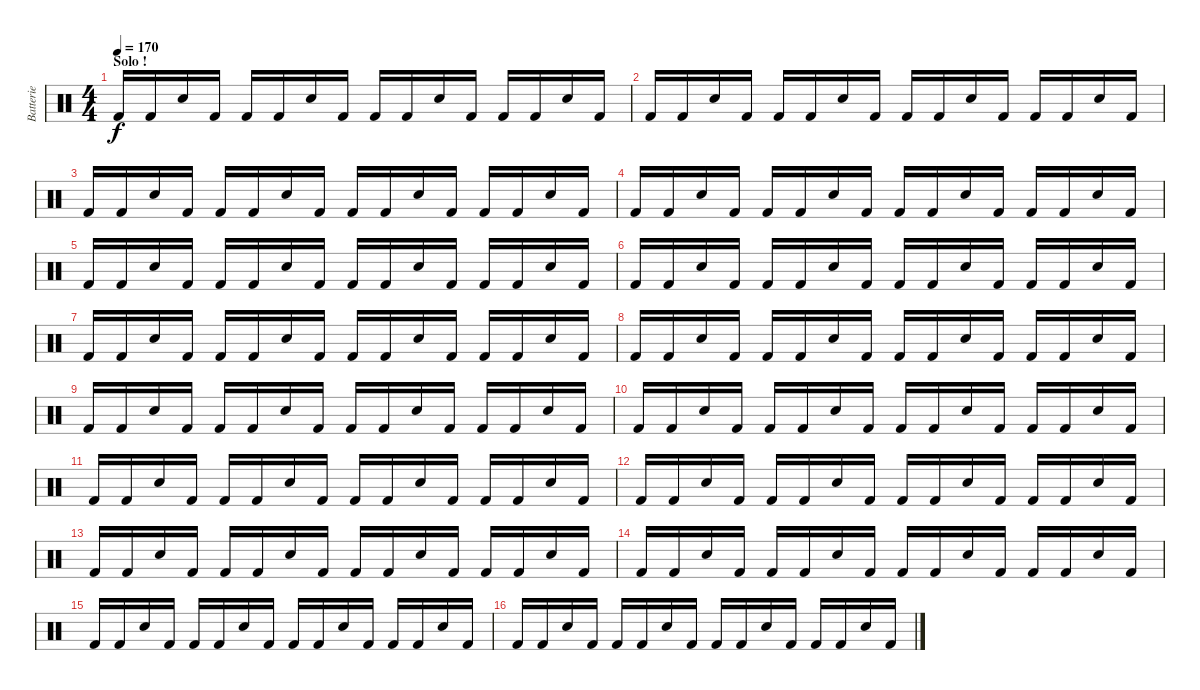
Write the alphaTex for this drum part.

\track ("Batterie" "Batterie") {instrument percussion}
\staff {score}
\articulation defaults
\ts (4 4)
\section ("" "Solo !")
\tempo 170
\clef neutral
\ks c "Kick (hit) 2".16{dy f} "Kick (hit) 2".16 "Snare (hit) 2".16 "Kick (hit) 2".16 "Kick (hit) 2".16 "Kick (hit) 2".16 "Snare (hit) 2".16 "Kick (hit) 2".16 "Kick (hit) 2".16 "Kick (hit) 2".16 "Snare (hit) 2".16 "Kick (hit) 2".16 "Kick (hit) 2".16 "Kick (hit) 2".16 "Snare (hit) 2".16 "Kick (hit) 2".16
|
"Kick (hit) 2".16 "Kick (hit) 2".16 "Snare (hit) 2".16 "Kick (hit) 2".16 "Kick (hit) 2".16 "Kick (hit) 2".16 "Snare (hit) 2".16 "Kick (hit) 2".16 "Kick (hit) 2".16 "Kick (hit) 2".16 "Snare (hit) 2".16 "Kick (hit) 2".16 "Kick (hit) 2".16 "Kick (hit) 2".16 "Snare (hit) 2".16 "Kick (hit) 2".16 |
"Kick (hit) 2".16 "Kick (hit) 2".16 "Snare (hit) 2".16 "Kick (hit) 2".16 "Kick (hit) 2".16 "Kick (hit) 2".16 "Snare (hit) 2".16 "Kick (hit) 2".16 "Kick (hit) 2".16 "Kick (hit) 2".16 "Snare (hit) 2".16 "Kick (hit) 2".16 "Kick (hit) 2".16 "Kick (hit) 2".16 "Snare (hit) 2".16 "Kick (hit) 2".16 |
"Kick (hit) 2".16 "Kick (hit) 2".16 "Snare (hit) 2".16 "Kick (hit) 2".16 "Kick (hit) 2".16 "Kick (hit) 2".16 "Snare (hit) 2".16 "Kick (hit) 2".16 "Kick (hit) 2".16 "Kick (hit) 2".16 "Snare (hit) 2".16 "Kick (hit) 2".16 "Kick (hit) 2".16 "Kick (hit) 2".16 "Snare (hit) 2".16 "Kick (hit) 2".16 |
"Kick (hit) 2".16 "Kick (hit) 2".16 "Snare (hit) 2".16 "Kick (hit) 2".16 "Kick (hit) 2".16 "Kick (hit) 2".16 "Snare (hit) 2".16 "Kick (hit) 2".16 "Kick (hit) 2".16 "Kick (hit) 2".16 "Snare (hit) 2".16 "Kick (hit) 2".16 "Kick (hit) 2".16 "Kick (hit) 2".16 "Snare (hit) 2".16 "Kick (hit) 2".16 |
"Kick (hit) 2".16 "Kick (hit) 2".16 "Snare (hit) 2".16 "Kick (hit) 2".16 "Kick (hit) 2".16 "Kick (hit) 2".16 "Snare (hit) 2".16 "Kick (hit) 2".16 "Kick (hit) 2".16 "Kick (hit) 2".16 "Snare (hit) 2".16 "Kick (hit) 2".16 "Kick (hit) 2".16 "Kick (hit) 2".16 "Snare (hit) 2".16 "Kick (hit) 2".16 |
"Kick (hit) 2".16 "Kick (hit) 2".16 "Snare (hit) 2".16 "Kick (hit) 2".16 "Kick (hit) 2".16 "Kick (hit) 2".16 "Snare (hit) 2".16 "Kick (hit) 2".16 "Kick (hit) 2".16 "Kick (hit) 2".16 "Snare (hit) 2".16 "Kick (hit) 2".16 "Kick (hit) 2".16 "Kick (hit) 2".16 "Snare (hit) 2".16 "Kick (hit) 2".16 |
"Kick (hit) 2".16 "Kick (hit) 2".16 "Snare (hit) 2".16 "Kick (hit) 2".16 "Kick (hit) 2".16 "Kick (hit) 2".16 "Snare (hit) 2".16 "Kick (hit) 2".16 "Kick (hit) 2".16 "Kick (hit) 2".16 "Snare (hit) 2".16 "Kick (hit) 2".16 "Kick (hit) 2".16 "Kick (hit) 2".16 "Snare (hit) 2".16 "Kick (hit) 2".16 |
"Kick (hit) 2".16 "Kick (hit) 2".16 "Snare (hit) 2".16 "Kick (hit) 2".16 "Kick (hit) 2".16 "Kick (hit) 2".16 "Snare (hit) 2".16 "Kick (hit) 2".16 "Kick (hit) 2".16 "Kick (hit) 2".16 "Snare (hit) 2".16 "Kick (hit) 2".16 "Kick (hit) 2".16 "Kick (hit) 2".16 "Snare (hit) 2".16 "Kick (hit) 2".16 |
"Kick (hit) 2".16 "Kick (hit) 2".16 "Snare (hit) 2".16 "Kick (hit) 2".16 "Kick (hit) 2".16 "Kick (hit) 2".16 "Snare (hit) 2".16 "Kick (hit) 2".16 "Kick (hit) 2".16 "Kick (hit) 2".16 "Snare (hit) 2".16 "Kick (hit) 2".16 "Kick (hit) 2".16 "Kick (hit) 2".16 "Snare (hit) 2".16 "Kick (hit) 2".16 |
"Kick (hit) 2".16 "Kick (hit) 2".16 "Snare (hit) 2".16 "Kick (hit) 2".16 "Kick (hit) 2".16 "Kick (hit) 2".16 "Snare (hit) 2".16 "Kick (hit) 2".16 "Kick (hit) 2".16 "Kick (hit) 2".16 "Snare (hit) 2".16 "Kick (hit) 2".16 "Kick (hit) 2".16 "Kick (hit) 2".16 "Snare (hit) 2".16 "Kick (hit) 2".16 |
"Kick (hit) 2".16 "Kick (hit) 2".16 "Snare (hit) 2".16 "Kick (hit) 2".16 "Kick (hit) 2".16 "Kick (hit) 2".16 "Snare (hit) 2".16 "Kick (hit) 2".16 "Kick (hit) 2".16 "Kick (hit) 2".16 "Snare (hit) 2".16 "Kick (hit) 2".16 "Kick (hit) 2".16 "Kick (hit) 2".16 "Snare (hit) 2".16 "Kick (hit) 2".16 |
"Kick (hit) 2".16 "Kick (hit) 2".16 "Snare (hit) 2".16 "Kick (hit) 2".16 "Kick (hit) 2".16 "Kick (hit) 2".16 "Snare (hit) 2".16 "Kick (hit) 2".16 "Kick (hit) 2".16 "Kick (hit) 2".16 "Snare (hit) 2".16 "Kick (hit) 2".16 "Kick (hit) 2".16 "Kick (hit) 2".16 "Snare (hit) 2".16 "Kick (hit) 2".16 |
"Kick (hit) 2".16 "Kick (hit) 2".16 "Snare (hit) 2".16 "Kick (hit) 2".16 "Kick (hit) 2".16 "Kick (hit) 2".16 "Snare (hit) 2".16 "Kick (hit) 2".16 "Kick (hit) 2".16 "Kick (hit) 2".16 "Snare (hit) 2".16 "Kick (hit) 2".16 "Kick (hit) 2".16 "Kick (hit) 2".16 "Snare (hit) 2".16 "Kick (hit) 2".16 |
"Kick (hit) 2".16 "Kick (hit) 2".16 "Snare (hit) 2".16 "Kick (hit) 2".16 "Kick (hit) 2".16 "Kick (hit) 2".16 "Snare (hit) 2".16 "Kick (hit) 2".16 "Kick (hit) 2".16 "Kick (hit) 2".16 "Snare (hit) 2".16 "Kick (hit) 2".16 "Kick (hit) 2".16 "Kick (hit) 2".16 "Snare (hit) 2".16 "Kick (hit) 2".16 |
"Kick (hit) 2".16 "Kick (hit) 2".16 "Snare (hit) 2".16 "Kick (hit) 2".16 "Kick (hit) 2".16 "Kick (hit) 2".16 "Snare (hit) 2".16 "Kick (hit) 2".16 "Kick (hit) 2".16 "Kick (hit) 2".16 "Snare (hit) 2".16 "Kick (hit) 2".16 "Kick (hit) 2".16 "Kick (hit) 2".16 "Snare (hit) 2".16 "Kick (hit) 2".16
